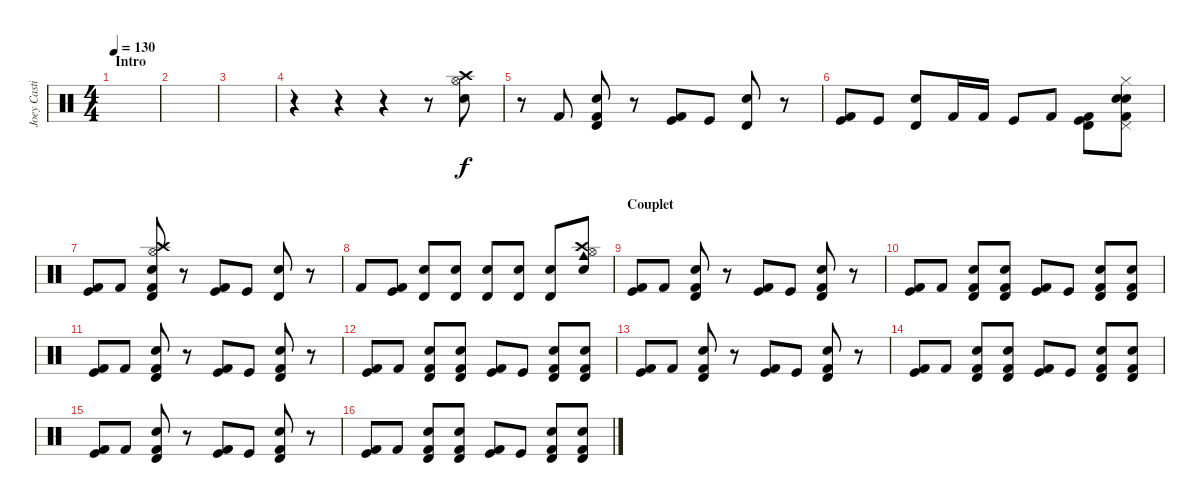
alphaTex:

\track ("Joey Castillo  (Batterie)" "Joey Casti") {instrument percussion}
\staff {score}
\articulation defaults
\ts (4 4)
\section ("" "Intro")
\tempo 130
\clef neutral
\ks c
|
|
|
r.4 r.4 r.4 r.8 ("Electric Snare (hit)" "Crash high (hit)" "Hi-Hat (open)").8 |
r.8 "Kick (hit) 2".8 ("Kick (hit) 2" "Timbale high (hit)" "Electric Snare (hit)").8 r.8 ("Kick (hit) 2" "Kick (hit)").8 "Kick (hit)".8 ("Timbale high (hit)" "Electric Snare (hit)").8 r.8 |
("Kick (hit) 2" "Kick (hit)").8 "Kick (hit)".8 ("Timbale high (hit)" "Electric Snare (hit)").8 "Kick (hit) 2".16 "Kick (hit) 2".16 "Kick (hit)".8 "Kick (hit) 2".8 ("Timbale high (hit)" "Kick (hit) 2" "Kick (hit)").8 ("Electric Snare (hit)" "Kick (hit) 2" "Snare (hit) 2" "Pedal Hi-Hat (hit)" "Hi-Hat (closed)").8 |
("Kick (hit) 2" "Kick (hit)").8 "Kick (hit) 2".8 ("Kick (hit) 2" "Timbale high (hit)" "Electric Snare (hit)" "Hi-Hat (open)" "Crash high (hit)").8 r.8 ("Kick (hit) 2" "Kick (hit)").8 "Kick (hit)".8 ("Timbale high (hit)" "Electric Snare (hit)").8 r.8 |
"Kick (hit) 2".8 ("Kick (hit) 2" "Kick (hit)").8 ("Electric Snare (hit)" "Timbale high (hit)").8 ("Electric Snare (hit)" "Timbale high (hit)").8 ("Electric Snare (hit)" "Timbale high (hit)").8 ("Electric Snare (hit)" "Timbale high (hit)").8 ("Electric Snare (hit)" "Timbale high (hit)").8 ("Electric Snare (hit)" "Cowbell medium (hit)" "Hi-Hat (open)" "Crash high (hit)").8 |
\section ("" "Couplet")
("Kick (hit) 2" "Kick (hit)").8 "Kick (hit) 2".8 ("Kick (hit) 2" "Timbale high (hit)" "Electric Snare (hit)").8 r.8 ("Kick (hit) 2" "Kick (hit)").8 "Kick (hit)".8 ("Kick (hit) 2" "Timbale high (hit)" "Electric Snare (hit)").8 r.8 |
("Kick (hit) 2" "Kick (hit)").8 "Kick (hit) 2".8 ("Kick (hit) 2" "Timbale high (hit)" "Electric Snare (hit)").8 ("Kick (hit) 2" "Timbale high (hit)" "Electric Snare (hit)").8 ("Kick (hit) 2" "Kick (hit)").8 "Kick (hit)".8 ("Kick (hit) 2" "Timbale high (hit)" "Electric Snare (hit)").8 ("Kick (hit) 2" "Timbale high (hit)" "Electric Snare (hit)").8 |
("Kick (hit) 2" "Kick (hit)").8 "Kick (hit) 2".8 ("Kick (hit) 2" "Timbale high (hit)" "Electric Snare (hit)").8 r.8 ("Kick (hit) 2" "Kick (hit)").8 "Kick (hit)".8 ("Kick (hit) 2" "Timbale high (hit)" "Electric Snare (hit)").8 r.8 |
("Kick (hit) 2" "Kick (hit)").8 "Kick (hit) 2".8 ("Kick (hit) 2" "Timbale high (hit)" "Electric Snare (hit)").8 ("Kick (hit) 2" "Timbale high (hit)" "Electric Snare (hit)").8 ("Kick (hit) 2" "Kick (hit)").8 "Kick (hit)".8 ("Kick (hit) 2" "Timbale high (hit)" "Electric Snare (hit)").8 ("Kick (hit) 2" "Timbale high (hit)" "Electric Snare (hit)").8 |
("Kick (hit) 2" "Kick (hit)").8 "Kick (hit) 2".8 ("Kick (hit) 2" "Timbale high (hit)" "Electric Snare (hit)").8 r.8 ("Kick (hit) 2" "Kick (hit)").8 "Kick (hit)".8 ("Kick (hit) 2" "Timbale high (hit)" "Electric Snare (hit)").8 r.8 |
("Kick (hit) 2" "Kick (hit)").8 "Kick (hit) 2".8 ("Kick (hit) 2" "Timbale high (hit)" "Electric Snare (hit)").8 ("Kick (hit) 2" "Timbale high (hit)" "Electric Snare (hit)").8 ("Kick (hit) 2" "Kick (hit)").8 "Kick (hit)".8 ("Kick (hit) 2" "Timbale high (hit)" "Electric Snare (hit)").8 ("Kick (hit) 2" "Timbale high (hit)" "Electric Snare (hit)").8 |
("Kick (hit) 2" "Kick (hit)").8 "Kick (hit) 2".8 ("Kick (hit) 2" "Timbale high (hit)" "Electric Snare (hit)").8 r.8 ("Kick (hit) 2" "Kick (hit)").8 "Kick (hit)".8 ("Kick (hit) 2" "Timbale high (hit)" "Electric Snare (hit)").8 r.8 |
("Kick (hit) 2" "Kick (hit)").8 "Kick (hit) 2".8 ("Kick (hit) 2" "Timbale high (hit)" "Electric Snare (hit)").8 ("Kick (hit) 2" "Timbale high (hit)" "Electric Snare (hit)").8 ("Kick (hit) 2" "Kick (hit)").8 "Kick (hit)".8 ("Kick (hit) 2" "Timbale high (hit)" "Electric Snare (hit)").8 ("Kick (hit) 2" "Timbale high (hit)" "Electric Snare (hit)").8
